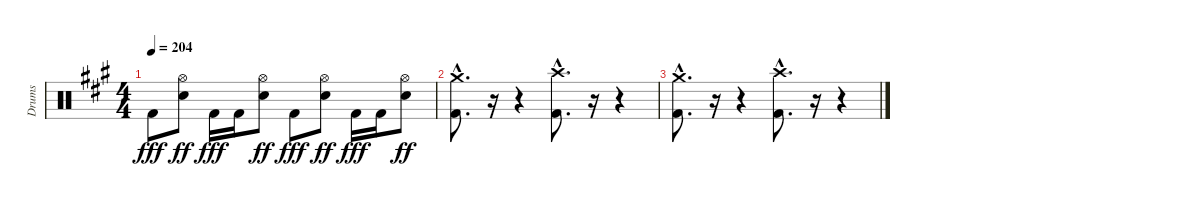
\track ("Drums" "Drums") {instrument percussion}
\staff {score}
\articulation defaults
\ts (4 4)
\tempo 204
\clef neutral
\ks a "Kick (hit) 2".8{dy fff}
("Electric Snare (hit)" "Hi-Hat (open)").8{dy ff} "Kick (hit) 2".16{dy fff} "Kick (hit) 2".16 ("Electric Snare (hit)" "Hi-Hat (open)").8{dy ff} "Kick (hit) 2".8{dy fff} ("Electric Snare (hit)" "Hi-Hat (open)").8{dy ff} "Kick (hit) 2".16{dy fff} "Kick (hit) 2".16 ("Electric Snare (hit)" "Hi-Hat (open)").8{dy ff} |
("Kick (hit) 2"{hac} "Crash medium (hit)"{hac}).8{d} r.16 r.4 ("Kick (hit) 2"{hac} "Crash high (hit)"{hac}).8{d} r.16 r.4 |
("Kick (hit) 2"{hac} "Crash medium (hit)"{hac}).8{d} r.16 r.4 ("Kick (hit) 2"{hac} "Crash high (hit)"{hac}).8{d} r.16 r.4
